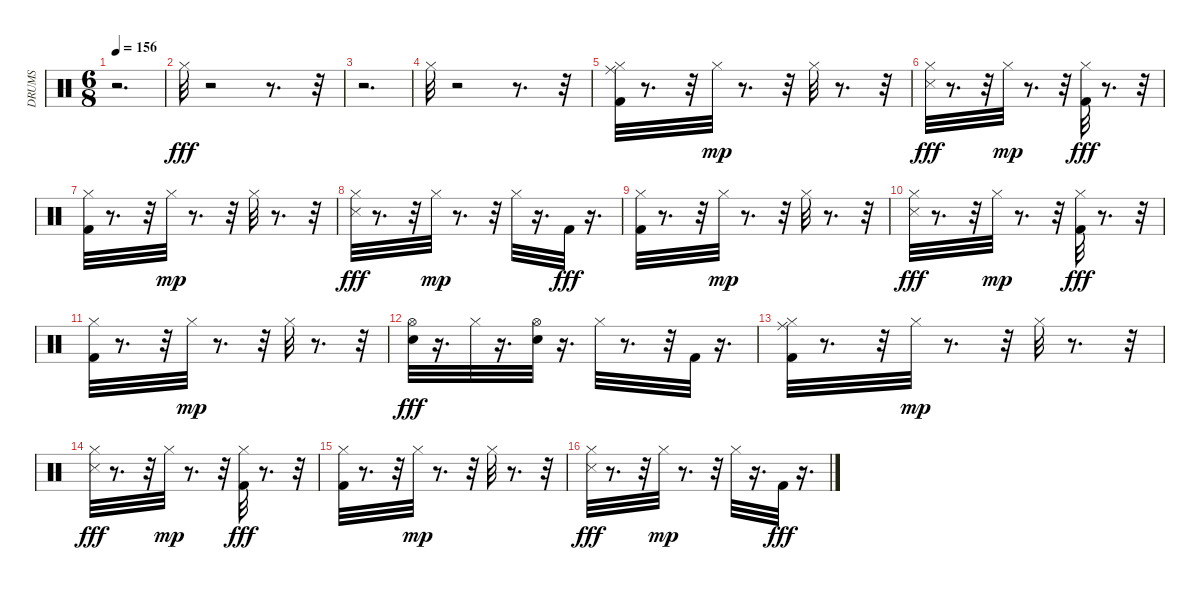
\track ("DRUMS" "DRUMS") {instrument percussion}
\staff {score}
\articulation defaults
\ts (6 8)
\tempo 156
\clef neutral
\ks c
r.2{d dy fff} |
"Hi-Hat (closed)".32 r.2 r.8{d} r.32 |
r.2{d} |
"Hi-Hat (closed)".32 r.2 r.8{d} r.32 |
("Ride (middle)" "Hi-Hat (closed)" "Kick (hit) 2").32 r.8{d} r.32 "Hi-Hat (closed)".32{dy mp} r.8{d} r.32 "Hi-Hat (closed)".32 r.8{d} r.32 |
("Snare (side stick) 3" "Hi-Hat (closed)").32{dy fff} r.8{d} r.32 "Hi-Hat (closed)".32{dy mp} r.8{d} r.32 ("Hi-Hat (closed)" "Kick (hit) 2").32{dy fff} r.8{d} r.32 |
("Hi-Hat (closed)" "Kick (hit) 2").32 r.8{d} r.32 "Hi-Hat (closed)".32{dy mp} r.8{d} r.32 "Hi-Hat (closed)".32 r.8{d} r.32 |
("Snare (side stick) 3" "Hi-Hat (closed)").32{dy fff} r.8{d} r.32 "Hi-Hat (closed)".32{dy mp} r.8{d} r.32 "Hi-Hat (closed)".32 r.16{d} "Kick (hit) 2".32{dy fff} r.16{d} |
("Hi-Hat (closed)" "Kick (hit) 2").32 r.8{d} r.32 "Hi-Hat (closed)".32{dy mp} r.8{d} r.32 "Hi-Hat (closed)".32 r.8{d} r.32 |
("Hi-Hat (closed)" "Snare (side stick) 3").32{dy fff} r.8{d} r.32 "Hi-Hat (closed)".32{dy mp} r.8{d} r.32 ("Hi-Hat (closed)" "Kick (hit) 2").32{dy fff} r.8{d} r.32 |
("Hi-Hat (closed)" "Kick (hit) 2").32 r.8{d} r.32 "Hi-Hat (closed)".32{dy mp} r.8{d} r.32 "Hi-Hat (closed)".32 r.8{d} r.32 |
("Hi-Hat (open)" "Snare (hit) 2").32{dy fff} r.16{d} "Hi-Hat (closed)".32 r.16{d} ("Hi-Hat (open)" "Snare (hit) 2").32 r.16{d} "Hi-Hat (closed)".32 r.8{d} r.32 "Kick (hit) 2".32 r.16{d} |
("Ride (middle)" "Hi-Hat (closed)" "Kick (hit) 2").32 r.8{d} r.32 "Hi-Hat (closed)".32{dy mp} r.8{d} r.32 "Hi-Hat (closed)".32 r.8{d} r.32 |
("Snare (side stick) 3" "Hi-Hat (closed)").32{dy fff} r.8{d} r.32 "Hi-Hat (closed)".32{dy mp} r.8{d} r.32 ("Hi-Hat (closed)" "Kick (hit) 2").32{dy fff} r.8{d} r.32 |
("Hi-Hat (closed)" "Kick (hit) 2").32 r.8{d} r.32 "Hi-Hat (closed)".32{dy mp} r.8{d} r.32 "Hi-Hat (closed)".32 r.8{d} r.32 |
("Snare (side stick) 3" "Hi-Hat (closed)").32{dy fff} r.8{d} r.32 "Hi-Hat (closed)".32{dy mp} r.8{d} r.32 "Hi-Hat (closed)".32 r.16{d} "Kick (hit) 2".32{dy fff} r.16{d}
